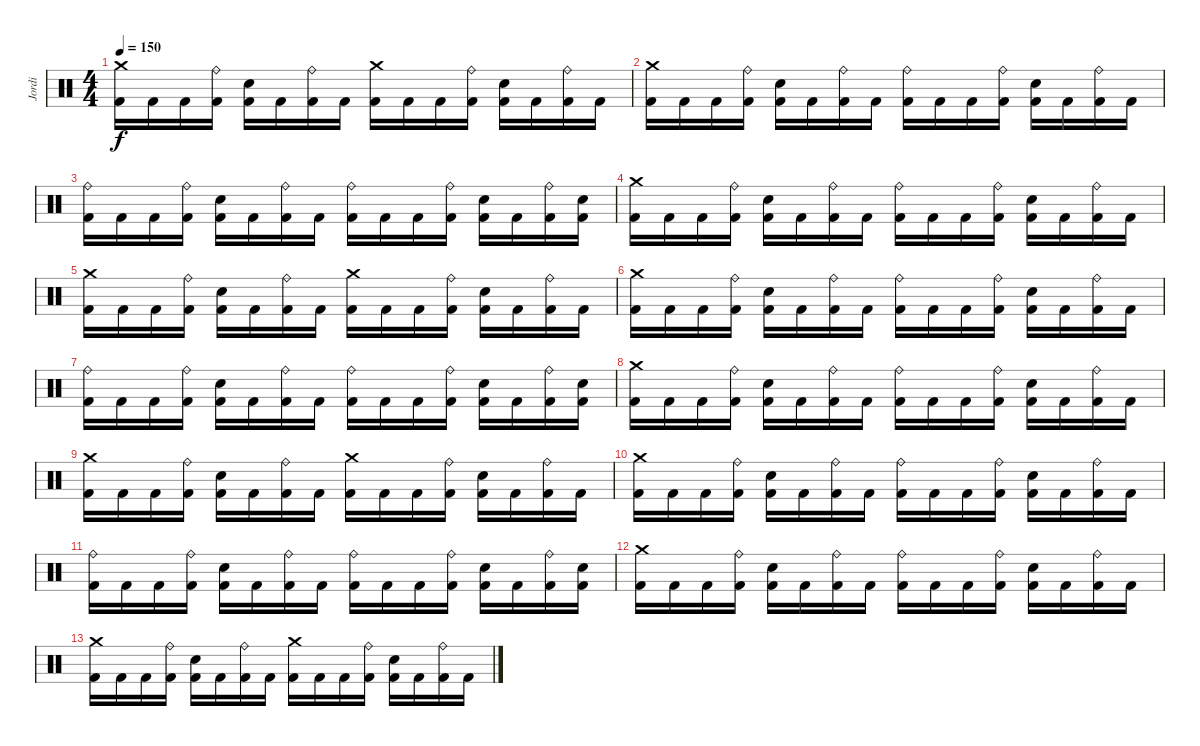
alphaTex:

\track ("Jordi" "Jordi") {instrument percussion}
\staff {score}
\articulation defaults
\ts (4 4)
\tempo 150
\clef neutral
\ks c
("Crash medium (hit)" "Kick (hit) 2").16{dy f} "Kick (hit) 2".16 "Kick (hit) 2".16 ("Ride (bell)" "Kick (hit) 2").16 ("Snare (hit) 2" "Kick (hit) 2").16 "Kick (hit) 2".16 ("Ride (bell)" "Kick (hit) 2").16 "Kick (hit) 2".16 ("Crash medium (hit)" "Kick (hit) 2").16 "Kick (hit) 2".16 "Kick (hit) 2".16 ("Ride (bell)" "Kick (hit) 2").16 ("Snare (hit) 2" "Kick (hit) 2").16 "Kick (hit) 2".16 ("Ride (bell)" "Kick (hit) 2").16 "Kick (hit) 2".16 |
("Crash medium (hit)" "Kick (hit) 2").16{volume 8} "Kick (hit) 2".16 "Kick (hit) 2".16 ("Ride (bell)" "Kick (hit) 2").16 ("Snare (hit) 2" "Kick (hit) 2").16 "Kick (hit) 2".16 ("Ride (bell)" "Kick (hit) 2").16 "Kick (hit) 2".16 ("Ride (bell)" "Kick (hit) 2").16 "Kick (hit) 2".16 "Kick (hit) 2".16 ("Ride (bell)" "Kick (hit) 2").16 ("Snare (hit) 2" "Kick (hit) 2").16 "Kick (hit) 2".16 ("Ride (bell)" "Kick (hit) 2").16 "Kick (hit) 2".16 |
("Ride (bell)" "Kick (hit) 2").16 "Kick (hit) 2".16 "Kick (hit) 2".16 ("Ride (bell)" "Kick (hit) 2").16 ("Snare (hit) 2" "Kick (hit) 2").16 "Kick (hit) 2".16 ("Ride (bell)" "Kick (hit) 2").16 "Kick (hit) 2".16 ("Ride (bell)" "Kick (hit) 2").16 "Kick (hit) 2".16 "Kick (hit) 2".16 ("Ride (bell)" "Kick (hit) 2").16 ("Snare (hit) 2" "Kick (hit) 2").16 "Kick (hit) 2".16 ("Ride (bell)" "Kick (hit) 2").16 ("Snare (hit) 2" "Kick (hit) 2").16 |
("Crash medium (hit)" "Kick (hit) 2").16 "Kick (hit) 2".16 "Kick (hit) 2".16 ("Ride (bell)" "Kick (hit) 2").16 ("Snare (hit) 2" "Kick (hit) 2").16 "Kick (hit) 2".16 ("Ride (bell)" "Kick (hit) 2").16 "Kick (hit) 2".16 ("Ride (bell)" "Kick (hit) 2").16 "Kick (hit) 2".16 "Kick (hit) 2".16 ("Ride (bell)" "Kick (hit) 2").16 ("Snare (hit) 2" "Kick (hit) 2").16 "Kick (hit) 2".16 ("Ride (bell)" "Kick (hit) 2").16 "Kick (hit) 2".16 |
("Crash medium (hit)" "Kick (hit) 2").16 "Kick (hit) 2".16 "Kick (hit) 2".16 ("Ride (bell)" "Kick (hit) 2").16 ("Snare (hit) 2" "Kick (hit) 2").16 "Kick (hit) 2".16 ("Ride (bell)" "Kick (hit) 2").16 "Kick (hit) 2".16 ("Crash medium (hit)" "Kick (hit) 2").16 "Kick (hit) 2".16 "Kick (hit) 2".16 ("Ride (bell)" "Kick (hit) 2").16 ("Snare (hit) 2" "Kick (hit) 2").16 "Kick (hit) 2".16 ("Ride (bell)" "Kick (hit) 2").16 "Kick (hit) 2".16 |
("Crash medium (hit)" "Kick (hit) 2").16{volume 4} "Kick (hit) 2".16 "Kick (hit) 2".16 ("Ride (bell)" "Kick (hit) 2").16 ("Snare (hit) 2" "Kick (hit) 2").16 "Kick (hit) 2".16 ("Ride (bell)" "Kick (hit) 2").16 "Kick (hit) 2".16 ("Ride (bell)" "Kick (hit) 2").16 "Kick (hit) 2".16 "Kick (hit) 2".16 ("Ride (bell)" "Kick (hit) 2").16 ("Snare (hit) 2" "Kick (hit) 2").16 "Kick (hit) 2".16 ("Ride (bell)" "Kick (hit) 2").16 "Kick (hit) 2".16 |
("Ride (bell)" "Kick (hit) 2").16 "Kick (hit) 2".16 "Kick (hit) 2".16 ("Ride (bell)" "Kick (hit) 2").16 ("Snare (hit) 2" "Kick (hit) 2").16 "Kick (hit) 2".16 ("Ride (bell)" "Kick (hit) 2").16 "Kick (hit) 2".16 ("Ride (bell)" "Kick (hit) 2").16 "Kick (hit) 2".16 "Kick (hit) 2".16 ("Ride (bell)" "Kick (hit) 2").16 ("Snare (hit) 2" "Kick (hit) 2").16 "Kick (hit) 2".16 ("Ride (bell)" "Kick (hit) 2").16 ("Snare (hit) 2" "Kick (hit) 2").16 |
("Crash medium (hit)" "Kick (hit) 2").16 "Kick (hit) 2".16 "Kick (hit) 2".16 ("Ride (bell)" "Kick (hit) 2").16 ("Snare (hit) 2" "Kick (hit) 2").16 "Kick (hit) 2".16 ("Ride (bell)" "Kick (hit) 2").16 "Kick (hit) 2".16 ("Ride (bell)" "Kick (hit) 2").16 "Kick (hit) 2".16 "Kick (hit) 2".16 ("Ride (bell)" "Kick (hit) 2").16 ("Snare (hit) 2" "Kick (hit) 2").16 "Kick (hit) 2".16 ("Ride (bell)" "Kick (hit) 2").16 "Kick (hit) 2".16 |
("Crash medium (hit)" "Kick (hit) 2").16 "Kick (hit) 2".16 "Kick (hit) 2".16 ("Ride (bell)" "Kick (hit) 2").16 ("Snare (hit) 2" "Kick (hit) 2").16 "Kick (hit) 2".16 ("Ride (bell)" "Kick (hit) 2").16 "Kick (hit) 2".16 ("Crash medium (hit)" "Kick (hit) 2").16 "Kick (hit) 2".16 "Kick (hit) 2".16 ("Ride (bell)" "Kick (hit) 2").16 ("Snare (hit) 2" "Kick (hit) 2").16 "Kick (hit) 2".16 ("Ride (bell)" "Kick (hit) 2").16 "Kick (hit) 2".16 |
("Crash medium (hit)" "Kick (hit) 2").16{volume 0} "Kick (hit) 2".16 "Kick (hit) 2".16 ("Ride (bell)" "Kick (hit) 2").16 ("Snare (hit) 2" "Kick (hit) 2").16 "Kick (hit) 2".16 ("Ride (bell)" "Kick (hit) 2").16 "Kick (hit) 2".16 ("Ride (bell)" "Kick (hit) 2").16 "Kick (hit) 2".16 "Kick (hit) 2".16 ("Ride (bell)" "Kick (hit) 2").16 ("Snare (hit) 2" "Kick (hit) 2").16 "Kick (hit) 2".16 ("Ride (bell)" "Kick (hit) 2").16 "Kick (hit) 2".16 |
("Ride (bell)" "Kick (hit) 2").16 "Kick (hit) 2".16 "Kick (hit) 2".16 ("Ride (bell)" "Kick (hit) 2").16 ("Snare (hit) 2" "Kick (hit) 2").16 "Kick (hit) 2".16 ("Ride (bell)" "Kick (hit) 2").16 "Kick (hit) 2".16 ("Ride (bell)" "Kick (hit) 2").16 "Kick (hit) 2".16 "Kick (hit) 2".16 ("Ride (bell)" "Kick (hit) 2").16 ("Snare (hit) 2" "Kick (hit) 2").16 "Kick (hit) 2".16 ("Ride (bell)" "Kick (hit) 2").16 ("Snare (hit) 2" "Kick (hit) 2").16 |
("Crash medium (hit)" "Kick (hit) 2").16 "Kick (hit) 2".16 "Kick (hit) 2".16 ("Ride (bell)" "Kick (hit) 2").16 ("Snare (hit) 2" "Kick (hit) 2").16 "Kick (hit) 2".16 ("Ride (bell)" "Kick (hit) 2").16 "Kick (hit) 2".16 ("Ride (bell)" "Kick (hit) 2").16 "Kick (hit) 2".16 "Kick (hit) 2".16 ("Ride (bell)" "Kick (hit) 2").16 ("Snare (hit) 2" "Kick (hit) 2").16 "Kick (hit) 2".16 ("Ride (bell)" "Kick (hit) 2").16 "Kick (hit) 2".16 |
("Crash medium (hit)" "Kick (hit) 2").16 "Kick (hit) 2".16 "Kick (hit) 2".16 ("Ride (bell)" "Kick (hit) 2").16 ("Snare (hit) 2" "Kick (hit) 2").16 "Kick (hit) 2".16 ("Ride (bell)" "Kick (hit) 2").16 "Kick (hit) 2".16 ("Crash medium (hit)" "Kick (hit) 2").16 "Kick (hit) 2".16 "Kick (hit) 2".16 ("Ride (bell)" "Kick (hit) 2").16 ("Snare (hit) 2" "Kick (hit) 2").16 "Kick (hit) 2".16 ("Ride (bell)" "Kick (hit) 2").16 "Kick (hit) 2".16
